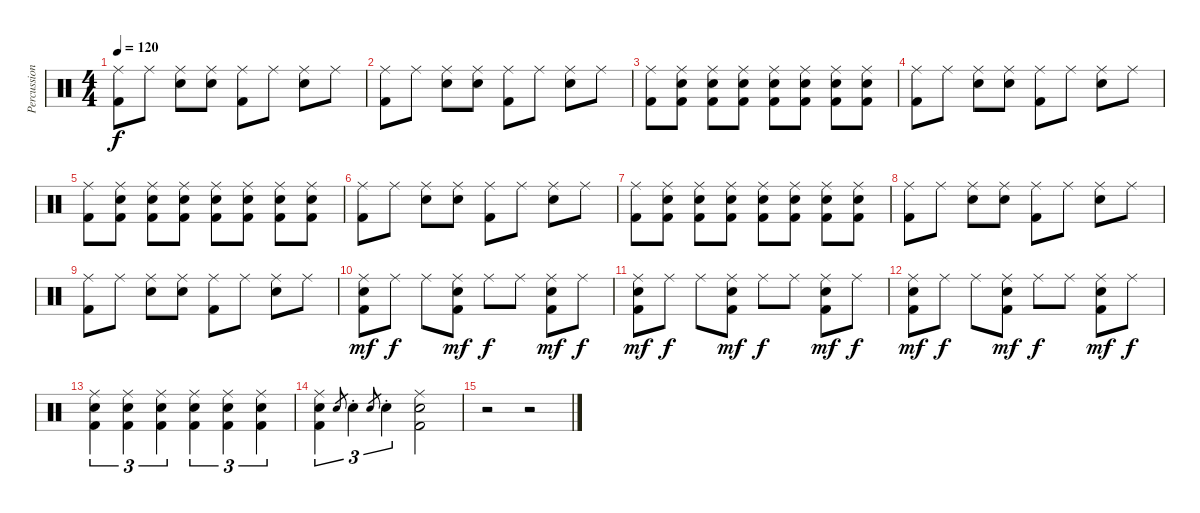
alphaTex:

\track ("Percussion" "Percussion") {instrument percussion}
\staff {score}
\articulation defaults
\ts (4 4)
\tempo 120
\clef neutral
\ks c
("Ride (middle)" "Kick (hit) 2").8{dy f} "Ride (middle)".8 ("Ride (middle)" "Snare (hit) 2").8 ("Ride (middle)" "Snare (hit) 2").8 ("Ride (middle)" "Kick (hit) 2").8 "Ride (middle)".8 ("Ride (middle)" "Snare (hit) 2").8 "Ride (middle)".8 |
("Ride (middle)" "Kick (hit) 2").8 "Ride (middle)".8 ("Ride (middle)" "Snare (hit) 2").8 ("Ride (middle)" "Snare (hit) 2").8 ("Ride (middle)" "Kick (hit) 2").8 "Ride (middle)".8 ("Ride (middle)" "Snare (hit) 2").8 "Ride (middle)".8 |
("Ride (middle)" "Kick (hit) 2").8 ("Ride (middle)" "Snare (hit) 2" "Kick (hit) 2").8 ("Ride (middle)" "Snare (hit) 2" "Kick (hit) 2").8 ("Ride (middle)" "Snare (hit) 2" "Kick (hit) 2").8 ("Ride (middle)" "Snare (hit) 2" "Kick (hit) 2").8 ("Ride (middle)" "Snare (hit) 2" "Kick (hit) 2").8 ("Ride (middle)" "Snare (hit) 2" "Kick (hit) 2").8 ("Ride (middle)" "Snare (hit) 2" "Kick (hit) 2").8 |
("Ride (middle)" "Kick (hit) 2").8 "Ride (middle)".8 ("Ride (middle)" "Snare (hit) 2").8 ("Ride (middle)" "Snare (hit) 2").8 ("Ride (middle)" "Kick (hit) 2").8 "Ride (middle)".8 ("Ride (middle)" "Snare (hit) 2").8 "Ride (middle)".8 |
("Ride (middle)" "Kick (hit) 2").8 ("Ride (middle)" "Snare (hit) 2" "Kick (hit) 2").8 ("Ride (middle)" "Snare (hit) 2" "Kick (hit) 2").8 ("Ride (middle)" "Snare (hit) 2" "Kick (hit) 2").8 ("Ride (middle)" "Snare (hit) 2" "Kick (hit) 2").8 ("Ride (middle)" "Snare (hit) 2" "Kick (hit) 2").8 ("Ride (middle)" "Snare (hit) 2" "Kick (hit) 2").8 ("Ride (middle)" "Snare (hit) 2" "Kick (hit) 2").8 |
("Ride (middle)" "Kick (hit) 2").8 "Ride (middle)".8 ("Ride (middle)" "Snare (hit) 2").8 ("Ride (middle)" "Snare (hit) 2").8 ("Ride (middle)" "Kick (hit) 2").8 "Ride (middle)".8 ("Ride (middle)" "Snare (hit) 2").8 "Ride (middle)".8 |
("Ride (middle)" "Kick (hit) 2").8 ("Ride (middle)" "Snare (hit) 2" "Kick (hit) 2").8 ("Ride (middle)" "Snare (hit) 2" "Kick (hit) 2").8 ("Ride (middle)" "Snare (hit) 2" "Kick (hit) 2").8 ("Ride (middle)" "Snare (hit) 2" "Kick (hit) 2").8 ("Ride (middle)" "Snare (hit) 2" "Kick (hit) 2").8 ("Ride (middle)" "Snare (hit) 2" "Kick (hit) 2").8 ("Ride (middle)" "Snare (hit) 2" "Kick (hit) 2").8 |
("Ride (middle)" "Kick (hit) 2").8 "Ride (middle)".8 ("Ride (middle)" "Snare (hit) 2").8 ("Ride (middle)" "Snare (hit) 2").8 ("Ride (middle)" "Kick (hit) 2").8 "Ride (middle)".8 ("Ride (middle)" "Snare (hit) 2").8 "Ride (middle)".8 |
("Ride (middle)" "Kick (hit) 2").8 "Ride (middle)".8 ("Ride (middle)" "Snare (hit) 2").8 ("Ride (middle)" "Snare (hit) 2").8 ("Ride (middle)" "Kick (hit) 2").8 "Ride (middle)".8 ("Ride (middle)" "Snare (hit) 2").8 "Ride (middle)".8 |
("Ride (middle)" "Kick (hit) 2" "Snare (hit) 2").8{dy mf} "Ride (middle)".8{dy f} "Ride (middle)".8 ("Ride (middle)" "Kick (hit) 2" "Snare (hit) 2").8{dy mf} "Ride (middle)".8{dy f} "Ride (middle)".8 ("Ride (middle)" "Kick (hit) 2" "Snare (hit) 2").8{dy mf} "Ride (middle)".8{dy f} |
("Ride (middle)" "Kick (hit) 2" "Snare (hit) 2").8{dy mf} "Ride (middle)".8{dy f} "Ride (middle)".8 ("Ride (middle)" "Kick (hit) 2" "Snare (hit) 2").8{dy mf} "Ride (middle)".8{dy f} "Ride (middle)".8 ("Ride (middle)" "Kick (hit) 2" "Snare (hit) 2").8{dy mf} "Ride (middle)".8{dy f} |
("Ride (middle)" "Kick (hit) 2" "Snare (hit) 2").8{dy mf} "Ride (middle)".8{dy f} "Ride (middle)".8 ("Ride (middle)" "Kick (hit) 2" "Snare (hit) 2").8{dy mf} "Ride (middle)".8{dy f} "Ride (middle)".8 ("Ride (middle)" "Kick (hit) 2" "Snare (hit) 2").8{dy mf} "Ride (middle)".8{dy f} |
("Ride (middle)" "Snare (hit) 2" "Kick (hit) 2").4{tu (3 2)} ("Ride (middle)" "Snare (hit) 2" "Kick (hit) 2").4{tu (3 2)} ("Ride (middle)" "Snare (hit) 2" "Kick (hit) 2").4{tu (3 2)} ("Ride (middle)" "Snare (hit) 2" "Kick (hit) 2").4{tu (3 2)} ("Ride (middle)" "Snare (hit) 2" "Kick (hit) 2").4{tu (3 2)} ("Ride (middle)" "Snare (hit) 2" "Kick (hit) 2").4{tu (3 2)} |
("Ride (middle)" "Snare (hit) 2" "Kick (hit) 2").4{tu (3 2)} "Snare (hit) 2".8{gr} "Snare (hit) 2"{st}.4{tu (3 2)} "Snare (hit) 2".8{gr} "Snare (hit) 2"{st}.4{tu (3 2)} ("Ride (middle)" "Kick (hit) 2" "Snare (hit) 2").2 |
r.2 r.2
